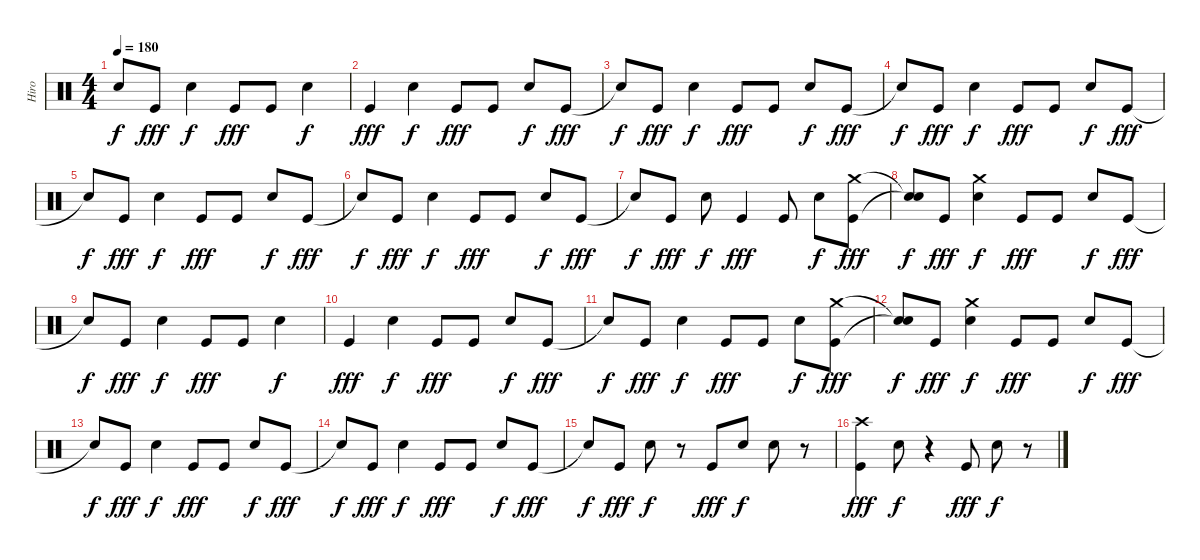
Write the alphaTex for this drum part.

\track ("Hiro" "Hiro") {instrument percussion}
\staff {score}
\articulation defaults
\ts (4 4)
\tempo 180
\clef neutral
\ks c "Snare (hit)"{t}.8{dy f} "Kick (hit)".8{dy fff} "Electric Snare (hit)".4{dy f} "Kick (hit)".8{dy fff} "Kick (hit)".8 "Electric Snare (hit)".4{dy f}
|
"Kick (hit)".4{dy fff} "Electric Snare (hit)".4{dy f} "Kick (hit)".8{dy fff} "Kick (hit)".8 "Electric Snare (hit)".8{dy f} "Kick (hit)".8{dy fff} |
"Snare (hit)"{t}.8{dy f} "Kick (hit)".8{dy fff} "Electric Snare (hit)".4{dy f} "Kick (hit)".8{dy fff} "Kick (hit)".8 "Electric Snare (hit)".8{dy f} "Kick (hit)".8{dy fff} |
"Snare (hit)"{t}.8{dy f} "Kick (hit)".8{dy fff} "Electric Snare (hit)".4{dy f} "Kick (hit)".8{dy fff} "Kick (hit)".8 "Electric Snare (hit)".8{dy f} "Kick (hit)".8{dy fff} |
"Snare (hit)"{t}.8{dy f} "Kick (hit)".8{dy fff} "Electric Snare (hit)".4{dy f} "Kick (hit)".8{dy fff} "Kick (hit)".8 "Electric Snare (hit)".8{dy f} "Kick (hit)".8{dy fff} |
"Snare (hit)"{t}.8{dy f} "Kick (hit)".8{dy fff} "Electric Snare (hit)".4{dy f} "Kick (hit)".8{dy fff} "Kick (hit)".8 "Electric Snare (hit)".8{dy f} "Kick (hit)".8{dy fff} |
"Snare (hit)"{t}.8{dy f} "Kick (hit)".8{dy fff} "Electric Snare (hit)".8{dy f} "Kick (hit)".4{dy fff} "Kick (hit)".8 "Electric Snare (hit)".8{dy f} ("Crash medium (hit)" "Kick (hit)").8{dy fff} |
("Snare (hit)"{t} "Snare (hit)"{t}).8{dy f} "Kick (hit)".8{dy fff} ("Electric Snare (hit)" "Crash medium (hit)").4{dy f} "Kick (hit)".8{dy fff} "Kick (hit)".8 "Electric Snare (hit)".8{dy f} "Kick (hit)".8{dy fff} |
"Snare (hit)"{t}.8{dy f} "Kick (hit)".8{dy fff} "Electric Snare (hit)".4{dy f} "Kick (hit)".8{dy fff} "Kick (hit)".8 "Electric Snare (hit)".4{dy f} |
"Kick (hit)".4{dy fff} "Electric Snare (hit)".4{dy f} "Kick (hit)".8{dy fff} "Kick (hit)".8 "Electric Snare (hit)".8{dy f} "Kick (hit)".8{dy fff} |
"Snare (hit)"{t}.8{dy f} "Kick (hit)".8{dy fff} "Electric Snare (hit)".4{dy f} "Kick (hit)".8{dy fff} "Kick (hit)".8 "Electric Snare (hit)".8{dy f} ("Crash medium (hit)" "Kick (hit)").8{dy fff} |
("Snare (hit)"{t} "Snare (hit)"{t}).8{dy f} "Kick (hit)".8{dy fff} ("Electric Snare (hit)" "Crash medium (hit)").4{dy f} "Kick (hit)".8{dy fff} "Kick (hit)".8 "Electric Snare (hit)".8{dy f} "Kick (hit)".8{dy fff} |
"Snare (hit)"{t}.8{dy f} "Kick (hit)".8{dy fff} "Electric Snare (hit)".4{dy f} "Kick (hit)".8{dy fff} "Kick (hit)".8 "Electric Snare (hit)".8{dy f} "Kick (hit)".8{dy fff} |
"Snare (hit)"{t}.8{dy f} "Kick (hit)".8{dy fff} "Electric Snare (hit)".4{dy f} "Kick (hit)".8{dy fff} "Kick (hit)".8 "Electric Snare (hit)".8{dy f} "Kick (hit)".8{dy fff} |
"Snare (hit)"{t}.8{dy f} "Kick (hit)".8{dy fff} "Electric Snare (hit)".8{dy f} r.8 "Kick (hit)".8{dy fff} "Electric Snare (hit)".8{dy f} "Electric Snare (hit)".8 r.8 |
("Crash high (hit)" "Kick (hit)").4{dy fff} "Electric Snare (hit)".8{dy f} r.4 "Kick (hit)".8{dy fff} "Electric Snare (hit)".8{dy f} r.8
